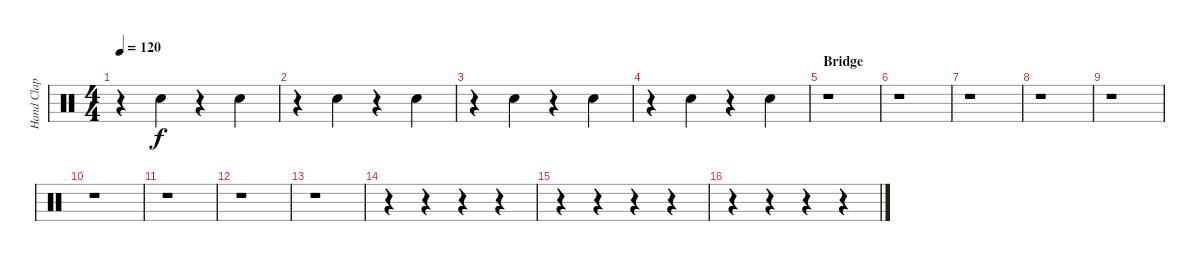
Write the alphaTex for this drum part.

\track ("Hand Clap" "Hand Clap") {instrument percussion}
\staff {score}
\articulation defaults
\ts (4 4)
\tempo 120
\clef neutral
\ks c
r.4{dy f} "Hand Clap (hit)".4 r.4 "Hand Clap (hit)".4 |
r.4 "Hand Clap (hit)".4 r.4 "Hand Clap (hit)".4 |
r.4 "Hand Clap (hit)".4 r.4 "Hand Clap (hit)".4 |
r.4 "Hand Clap (hit)".4 r.4 "Hand Clap (hit)".4 |
\section ("" "Bridge")
r.1 |
r.1 |
r.1 |
r.1 |
r.1 |
r.1 |
r.1 |
r.1 |
r.1 |
r.4 r.4 r.4 r.4 |
r.4 r.4 r.4 r.4 |
r.4 r.4 r.4 r.4
